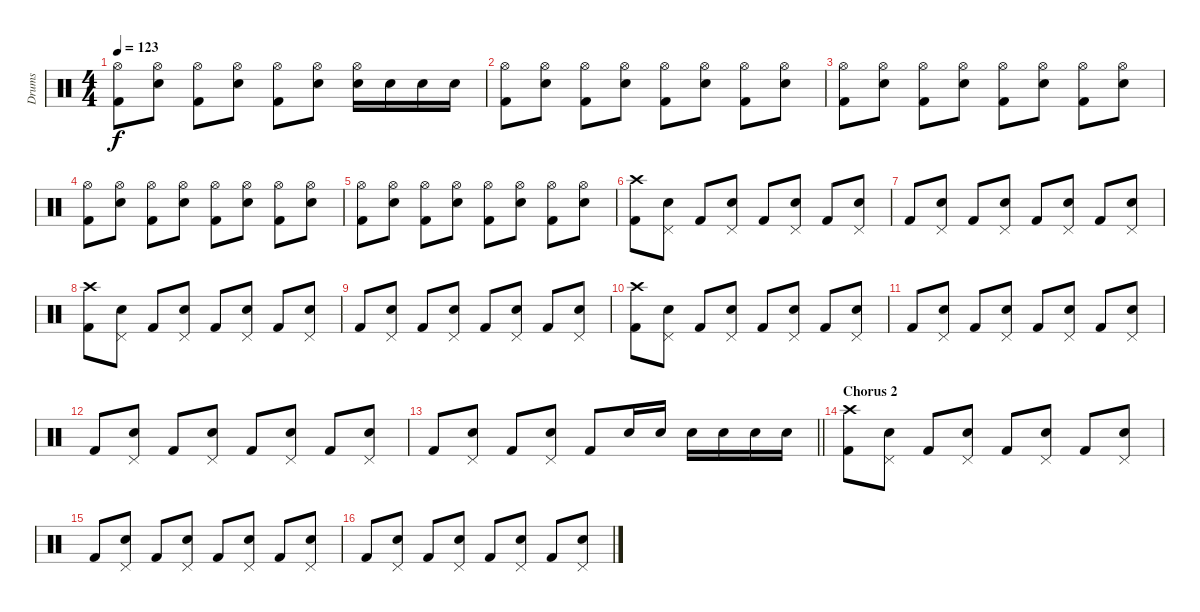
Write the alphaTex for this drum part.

\track ("Drums" "Drums") {instrument percussion}
\staff {score}
\articulation defaults
\ts (4 4)
\tempo 123
\clef neutral
\ks c
("Hi-Hat (open)" "Kick (hit) 2").8{dy f} ("Hi-Hat (open)" "Snare (hit) 2").8 ("Hi-Hat (open)" "Kick (hit) 2").8 ("Hi-Hat (open)" "Snare (hit) 2").8 ("Hi-Hat (open)" "Kick (hit) 2").8 ("Hi-Hat (open)" "Snare (hit) 2").8 ("Hi-Hat (open)" "Snare (hit) 2").16 "Snare (hit) 2".16 "Snare (hit) 2".16 "Snare (hit) 2".16 |
("Hi-Hat (open)" "Kick (hit) 2").8 ("Hi-Hat (open)" "Snare (hit) 2").8 ("Hi-Hat (open)" "Kick (hit) 2").8 ("Hi-Hat (open)" "Snare (hit) 2").8 ("Hi-Hat (open)" "Kick (hit) 2").8 ("Hi-Hat (open)" "Snare (hit) 2").8 ("Hi-Hat (open)" "Kick (hit) 2").8 ("Hi-Hat (open)" "Snare (hit) 2").8 |
("Hi-Hat (open)" "Kick (hit) 2").8 ("Hi-Hat (open)" "Snare (hit) 2").8 ("Hi-Hat (open)" "Kick (hit) 2").8 ("Hi-Hat (open)" "Snare (hit) 2").8 ("Hi-Hat (open)" "Kick (hit) 2").8 ("Hi-Hat (open)" "Snare (hit) 2").8 ("Hi-Hat (open)" "Kick (hit) 2").8 ("Hi-Hat (open)" "Snare (hit) 2").8 |
("Hi-Hat (open)" "Kick (hit) 2").8 ("Hi-Hat (open)" "Snare (hit) 2").8 ("Hi-Hat (open)" "Kick (hit) 2").8 ("Hi-Hat (open)" "Snare (hit) 2").8 ("Hi-Hat (open)" "Kick (hit) 2").8 ("Hi-Hat (open)" "Snare (hit) 2").8 ("Hi-Hat (open)" "Kick (hit) 2").8 ("Hi-Hat (open)" "Snare (hit) 2").8 |
("Hi-Hat (open)" "Kick (hit) 2").8 ("Hi-Hat (open)" "Snare (hit) 2").8 ("Hi-Hat (open)" "Kick (hit) 2").8 ("Hi-Hat (open)" "Snare (hit) 2").8 ("Hi-Hat (open)" "Kick (hit) 2").8 ("Hi-Hat (open)" "Snare (hit) 2").8 ("Hi-Hat (open)" "Kick (hit) 2").8 ("Hi-Hat (open)" "Snare (hit) 2").8 |
("Crash high (hit)" "Kick (hit) 2").8 ("Pedal Hi-Hat (hit)" "Snare (hit) 2").8 "Kick (hit) 2".8 ("Pedal Hi-Hat (hit)" "Snare (hit) 2").8 "Kick (hit) 2".8 ("Pedal Hi-Hat (hit)" "Snare (hit) 2").8 "Kick (hit) 2".8 ("Pedal Hi-Hat (hit)" "Snare (hit) 2").8 |
"Kick (hit) 2".8 ("Pedal Hi-Hat (hit)" "Snare (hit) 2").8 "Kick (hit) 2".8 ("Pedal Hi-Hat (hit)" "Snare (hit) 2").8 "Kick (hit) 2".8 ("Pedal Hi-Hat (hit)" "Snare (hit) 2").8 "Kick (hit) 2".8 ("Pedal Hi-Hat (hit)" "Snare (hit) 2").8 |
("Crash high (hit)" "Kick (hit) 2").8 ("Pedal Hi-Hat (hit)" "Snare (hit) 2").8 "Kick (hit) 2".8 ("Pedal Hi-Hat (hit)" "Snare (hit) 2").8 "Kick (hit) 2".8 ("Pedal Hi-Hat (hit)" "Snare (hit) 2").8 "Kick (hit) 2".8 ("Pedal Hi-Hat (hit)" "Snare (hit) 2").8 |
"Kick (hit) 2".8 ("Pedal Hi-Hat (hit)" "Snare (hit) 2").8 "Kick (hit) 2".8 ("Pedal Hi-Hat (hit)" "Snare (hit) 2").8 "Kick (hit) 2".8 ("Pedal Hi-Hat (hit)" "Snare (hit) 2").8 "Kick (hit) 2".8 ("Pedal Hi-Hat (hit)" "Snare (hit) 2").8 |
("Crash high (hit)" "Kick (hit) 2").8 ("Pedal Hi-Hat (hit)" "Snare (hit) 2").8 "Kick (hit) 2".8 ("Pedal Hi-Hat (hit)" "Snare (hit) 2").8 "Kick (hit) 2".8 ("Pedal Hi-Hat (hit)" "Snare (hit) 2").8 "Kick (hit) 2".8 ("Pedal Hi-Hat (hit)" "Snare (hit) 2").8 |
"Kick (hit) 2".8 ("Pedal Hi-Hat (hit)" "Snare (hit) 2").8 "Kick (hit) 2".8 ("Pedal Hi-Hat (hit)" "Snare (hit) 2").8 "Kick (hit) 2".8 ("Pedal Hi-Hat (hit)" "Snare (hit) 2").8 "Kick (hit) 2".8 ("Pedal Hi-Hat (hit)" "Snare (hit) 2").8 |
"Kick (hit) 2".8 ("Pedal Hi-Hat (hit)" "Snare (hit) 2").8 "Kick (hit) 2".8 ("Pedal Hi-Hat (hit)" "Snare (hit) 2").8 "Kick (hit) 2".8 ("Pedal Hi-Hat (hit)" "Snare (hit) 2").8 "Kick (hit) 2".8 ("Pedal Hi-Hat (hit)" "Snare (hit) 2").8 |
\barLineRight lightlight "Kick (hit) 2".8
("Pedal Hi-Hat (hit)" "Snare (hit) 2").8 "Kick (hit) 2".8 ("Pedal Hi-Hat (hit)" "Snare (hit) 2").8 "Kick (hit) 2".8 "Snare (hit) 2".16 "Snare (hit) 2".16 "Snare (hit) 2".16 "Snare (hit) 2".16 "Snare (hit) 2".16 "Snare (hit) 2".16 |
\section ("" "Chorus 2")
("Crash high (hit)" "Kick (hit) 2").8 ("Pedal Hi-Hat (hit)" "Snare (hit) 2").8 "Kick (hit) 2".8 ("Pedal Hi-Hat (hit)" "Snare (hit) 2").8 "Kick (hit) 2".8 ("Pedal Hi-Hat (hit)" "Snare (hit) 2").8 "Kick (hit) 2".8 ("Pedal Hi-Hat (hit)" "Snare (hit) 2").8 |
"Kick (hit) 2".8 ("Pedal Hi-Hat (hit)" "Snare (hit) 2").8 "Kick (hit) 2".8 ("Pedal Hi-Hat (hit)" "Snare (hit) 2").8 "Kick (hit) 2".8 ("Pedal Hi-Hat (hit)" "Snare (hit) 2").8 "Kick (hit) 2".8 ("Pedal Hi-Hat (hit)" "Snare (hit) 2").8 |
"Kick (hit) 2".8 ("Pedal Hi-Hat (hit)" "Snare (hit) 2").8 "Kick (hit) 2".8 ("Pedal Hi-Hat (hit)" "Snare (hit) 2").8 "Kick (hit) 2".8 ("Pedal Hi-Hat (hit)" "Snare (hit) 2").8 "Kick (hit) 2".8 ("Pedal Hi-Hat (hit)" "Snare (hit) 2").8
